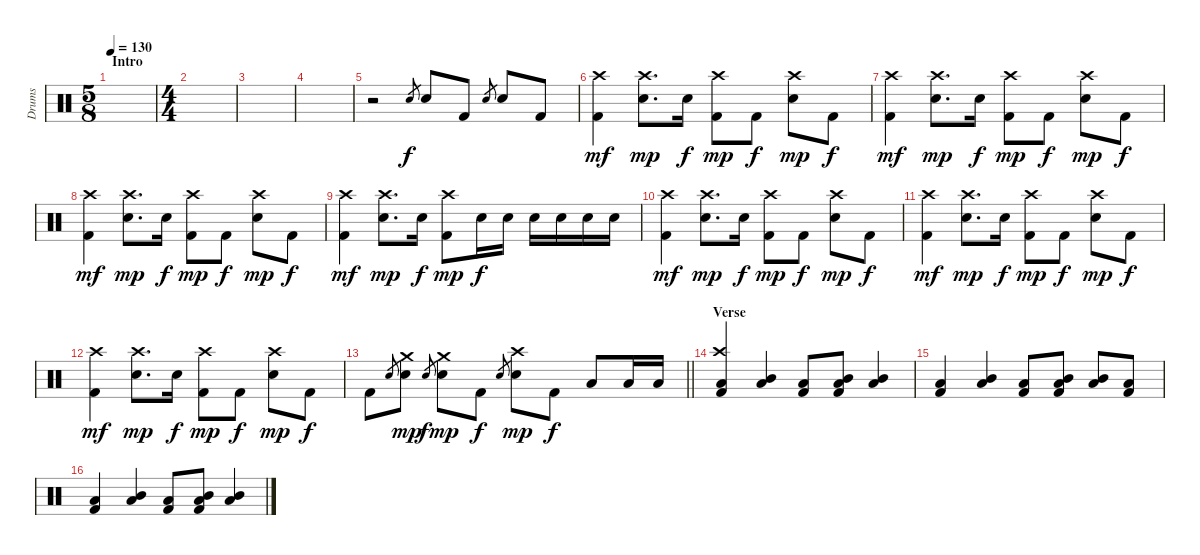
\track ("Drums" "Drums") {instrument percussion}
\staff {score}
\articulation defaults
\ts (5 8)
\section ("" "Intro")
\tempo 130
\clef neutral
\ks c
|
\ts (4 4)
|
|
|
r.2 "Snare (hit) 2".8{gr} "Snare (hit) 2".8 "Kick (hit) 2".8 "Snare (hit) 2".8{gr} "Snare (hit) 2".8 "Kick (hit) 2".8 |
("Crash high (hit)" "Kick (hit) 2").4{dy mf} ("Crash high (hit)" "Snare (hit) 2").8{d dy mp} "Snare (hit) 2".16{dy f} ("Crash high (hit)" "Kick (hit) 2").8{dy mp} "Kick (hit) 2".8{dy f} ("Crash high (hit)" "Snare (hit) 2").8{dy mp} "Kick (hit) 2".8{dy f} |
("Crash high (hit)" "Kick (hit) 2").4{dy mf} ("Crash high (hit)" "Snare (hit) 2").8{d dy mp} "Snare (hit) 2".16{dy f} ("Crash high (hit)" "Kick (hit) 2").8{dy mp} "Kick (hit) 2".8{dy f} ("Crash high (hit)" "Snare (hit) 2").8{dy mp} "Kick (hit) 2".8{dy f} |
("Crash high (hit)" "Kick (hit) 2").4{dy mf} ("Crash high (hit)" "Snare (hit) 2").8{d dy mp} "Snare (hit) 2".16{dy f} ("Crash high (hit)" "Kick (hit) 2").8{dy mp} "Kick (hit) 2".8{dy f} ("Crash high (hit)" "Snare (hit) 2").8{dy mp} "Kick (hit) 2".8{dy f} |
("Crash high (hit)" "Kick (hit) 2").4{dy mf} ("Crash high (hit)" "Snare (hit) 2").8{d dy mp} "Snare (hit) 2".16{dy f} ("Crash high (hit)" "Kick (hit) 2").8{dy mp} "Snare (hit) 2".16{dy f} "Snare (hit) 2".16 "Snare (hit) 2".16 "Snare (hit) 2".16 "Snare (hit) 2".16 "Snare (hit) 2".16 |
("Crash high (hit)" "Kick (hit) 2").4{dy mf} ("Crash high (hit)" "Snare (hit) 2").8{d dy mp} "Snare (hit) 2".16{dy f} ("Crash high (hit)" "Kick (hit) 2").8{dy mp} "Kick (hit) 2".8{dy f} ("Crash high (hit)" "Snare (hit) 2").8{dy mp} "Kick (hit) 2".8{dy f} |
("Crash high (hit)" "Kick (hit) 2").4{dy mf} ("Crash high (hit)" "Snare (hit) 2").8{d dy mp} "Snare (hit) 2".16{dy f} ("Crash high (hit)" "Kick (hit) 2").8{dy mp} "Kick (hit) 2".8{dy f} ("Crash high (hit)" "Snare (hit) 2").8{dy mp} "Kick (hit) 2".8{dy f} |
("Crash high (hit)" "Kick (hit) 2").4{dy mf} ("Crash high (hit)" "Snare (hit) 2").8{d dy mp} "Snare (hit) 2".16{dy f} ("Crash high (hit)" "Kick (hit) 2").8{dy mp} "Kick (hit) 2".8{dy f} ("Crash high (hit)" "Snare (hit) 2").8{dy mp} "Kick (hit) 2".8{dy f} |
\barLineRight lightlight "Kick (hit) 2".8 "Snare (hit) 2".8{gr}
("Crash medium (hit)" "Snare (hit) 2").8{dy mp} "Snare (hit) 2".8{gr dy f} ("Crash medium (hit)" "Snare (hit) 2").8{dy mp} "Kick (hit) 2".8{dy f} "Snare (hit) 2".8{gr} ("Crash high (hit)" "Snare (hit) 2").8{dy mp} "Kick (hit) 2".8{dy f} "Low Floor Tom (hit)".8 "Low Floor Tom (hit)".16 "Low Floor Tom (hit)".16 |
\section ("" "Verse")
("Crash high (hit)" "Low Floor Tom (hit)" "Kick (hit) 2").4 ("Mid Tom (hit)" "Low Tom (hit)").4 ("Low Floor Tom (hit)" "Kick (hit) 2").8 ("Mid Tom (hit)" "Low Floor Tom (hit)" "Kick (hit) 2").8 ("Mid Tom (hit)" "Low Tom (hit)").4 |
("Low Floor Tom (hit)" "Kick (hit) 2").4 ("Mid Tom (hit)" "Low Tom (hit)").4 ("Low Floor Tom (hit)" "Kick (hit) 2").8 ("Mid Tom (hit)" "Low Floor Tom (hit)" "Kick (hit) 2").8 ("Mid Tom (hit)" "Low Tom (hit)").8 ("Low Floor Tom (hit)" "Kick (hit) 2").8 |
("Low Floor Tom (hit)" "Kick (hit) 2").4 ("Mid Tom (hit)" "Low Tom (hit)").4 ("Low Floor Tom (hit)" "Kick (hit) 2").8 ("Mid Tom (hit)" "Low Floor Tom (hit)" "Kick (hit) 2").8 ("Mid Tom (hit)" "Low Tom (hit)").4
